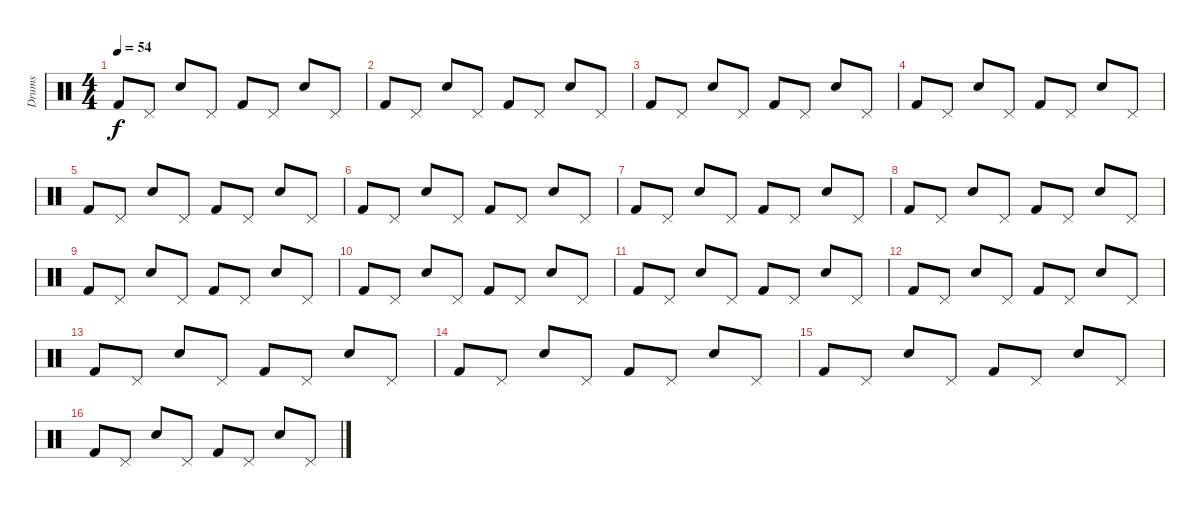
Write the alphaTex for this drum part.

\track ("Drums" "Drums") {instrument percussion}
\staff {score}
\articulation defaults
\ts (4 4)
\tempo 54
\clef neutral
\ks c "Kick (hit) 2".8{dy f} "Pedal Hi-Hat (hit)".8 "Electric Snare (hit)".8 "Pedal Hi-Hat (hit)".8 "Kick (hit) 2".8 "Pedal Hi-Hat (hit)".8 "Electric Snare (hit)".8 "Pedal Hi-Hat (hit)".8
|
"Kick (hit) 2".8 "Pedal Hi-Hat (hit)".8 "Electric Snare (hit)".8 "Pedal Hi-Hat (hit)".8 "Kick (hit) 2".8 "Pedal Hi-Hat (hit)".8 "Electric Snare (hit)".8 "Pedal Hi-Hat (hit)".8 |
"Kick (hit) 2".8 "Pedal Hi-Hat (hit)".8 "Electric Snare (hit)".8 "Pedal Hi-Hat (hit)".8 "Kick (hit) 2".8 "Pedal Hi-Hat (hit)".8 "Electric Snare (hit)".8 "Pedal Hi-Hat (hit)".8 |
"Kick (hit) 2".8 "Pedal Hi-Hat (hit)".8 "Electric Snare (hit)".8 "Pedal Hi-Hat (hit)".8 "Kick (hit) 2".8 "Pedal Hi-Hat (hit)".8 "Electric Snare (hit)".8 "Pedal Hi-Hat (hit)".8 |
"Kick (hit) 2".8 "Pedal Hi-Hat (hit)".8 "Electric Snare (hit)".8 "Pedal Hi-Hat (hit)".8 "Kick (hit) 2".8 "Pedal Hi-Hat (hit)".8 "Electric Snare (hit)".8 "Pedal Hi-Hat (hit)".8 |
"Kick (hit) 2".8 "Pedal Hi-Hat (hit)".8 "Electric Snare (hit)".8 "Pedal Hi-Hat (hit)".8 "Kick (hit) 2".8 "Pedal Hi-Hat (hit)".8 "Electric Snare (hit)".8 "Pedal Hi-Hat (hit)".8 |
"Kick (hit) 2".8 "Pedal Hi-Hat (hit)".8 "Electric Snare (hit)".8 "Pedal Hi-Hat (hit)".8 "Kick (hit) 2".8 "Pedal Hi-Hat (hit)".8 "Electric Snare (hit)".8 "Pedal Hi-Hat (hit)".8 |
"Kick (hit) 2".8 "Pedal Hi-Hat (hit)".8 "Electric Snare (hit)".8 "Pedal Hi-Hat (hit)".8 "Kick (hit) 2".8 "Pedal Hi-Hat (hit)".8 "Electric Snare (hit)".8 "Pedal Hi-Hat (hit)".8 |
"Kick (hit) 2".8 "Pedal Hi-Hat (hit)".8 "Electric Snare (hit)".8 "Pedal Hi-Hat (hit)".8 "Kick (hit) 2".8 "Pedal Hi-Hat (hit)".8 "Electric Snare (hit)".8 "Pedal Hi-Hat (hit)".8 |
"Kick (hit) 2".8 "Pedal Hi-Hat (hit)".8 "Electric Snare (hit)".8 "Pedal Hi-Hat (hit)".8 "Kick (hit) 2".8 "Pedal Hi-Hat (hit)".8 "Electric Snare (hit)".8 "Pedal Hi-Hat (hit)".8 |
"Kick (hit) 2".8 "Pedal Hi-Hat (hit)".8 "Electric Snare (hit)".8 "Pedal Hi-Hat (hit)".8 "Kick (hit) 2".8 "Pedal Hi-Hat (hit)".8 "Electric Snare (hit)".8 "Pedal Hi-Hat (hit)".8 |
"Kick (hit) 2".8 "Pedal Hi-Hat (hit)".8 "Electric Snare (hit)".8 "Pedal Hi-Hat (hit)".8 "Kick (hit) 2".8 "Pedal Hi-Hat (hit)".8 "Electric Snare (hit)".8 "Pedal Hi-Hat (hit)".8 |
"Kick (hit) 2".8 "Pedal Hi-Hat (hit)".8 "Electric Snare (hit)".8 "Pedal Hi-Hat (hit)".8 "Kick (hit) 2".8 "Pedal Hi-Hat (hit)".8 "Electric Snare (hit)".8 "Pedal Hi-Hat (hit)".8 |
"Kick (hit) 2".8 "Pedal Hi-Hat (hit)".8 "Electric Snare (hit)".8 "Pedal Hi-Hat (hit)".8 "Kick (hit) 2".8 "Pedal Hi-Hat (hit)".8 "Electric Snare (hit)".8 "Pedal Hi-Hat (hit)".8 |
"Kick (hit) 2".8 "Pedal Hi-Hat (hit)".8 "Electric Snare (hit)".8 "Pedal Hi-Hat (hit)".8 "Kick (hit) 2".8 "Pedal Hi-Hat (hit)".8 "Electric Snare (hit)".8 "Pedal Hi-Hat (hit)".8 |
"Kick (hit) 2".8 "Pedal Hi-Hat (hit)".8 "Electric Snare (hit)".8 "Pedal Hi-Hat (hit)".8 "Kick (hit) 2".8 "Pedal Hi-Hat (hit)".8 "Electric Snare (hit)".8 "Pedal Hi-Hat (hit)".8
